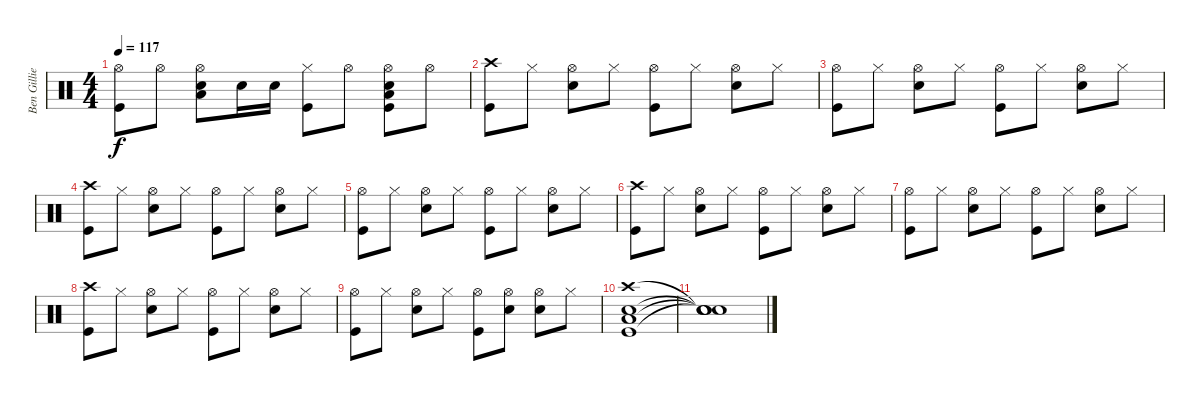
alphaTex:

\track ("Ben Gillies" "Ben Gillie") {instrument percussion}
\staff {score}
\articulation defaults
\ts (4 4)
\tempo 117
\clef neutral
\ks c
("Hi-Hat (open)" "Kick (hit)").8{dy f} "Hi-Hat (open)".8 ("Snare (hit) 2" "Hi-Hat (open)" "Low Tom (hit)").8 "Snare (hit) 2".16 "Snare (hit) 2".16 ("Hi-Hat (closed)" "Kick (hit)").8 "Hi-Hat (open)".8 ("Kick (hit)" "Snare (hit) 2" "Hi-Hat (open)" "Low Tom (hit)").8 "Hi-Hat (open)".8 |
("Crash high (hit)" "Kick (hit)").8 "Hi-Hat (closed)".8 ("Snare (hit) 2" "Hi-Hat (open)").8 "Hi-Hat (closed)".8 ("Hi-Hat (open)" "Kick (hit)").8 "Hi-Hat (closed)".8 ("Snare (hit) 2" "Hi-Hat (open)").8 "Hi-Hat (closed)".8 |
("Hi-Hat (open)" "Kick (hit)").8 "Hi-Hat (closed)".8 ("Snare (hit) 2" "Hi-Hat (open)").8 "Hi-Hat (closed)".8 ("Hi-Hat (open)" "Kick (hit)").8 "Hi-Hat (closed)".8 ("Snare (hit) 2" "Hi-Hat (open)").8 "Hi-Hat (closed)".8 |
("Crash high (hit)" "Kick (hit)").8 "Hi-Hat (closed)".8 ("Snare (hit) 2" "Hi-Hat (open)").8 "Hi-Hat (closed)".8 ("Hi-Hat (open)" "Kick (hit)").8 "Hi-Hat (closed)".8 ("Snare (hit) 2" "Hi-Hat (open)").8 "Hi-Hat (closed)".8 |
("Hi-Hat (open)" "Kick (hit)").8 "Hi-Hat (closed)".8 ("Snare (hit) 2" "Hi-Hat (open)").8 "Hi-Hat (closed)".8 ("Hi-Hat (open)" "Kick (hit)").8 "Hi-Hat (closed)".8 ("Snare (hit) 2" "Hi-Hat (open)").8 "Hi-Hat (closed)".8 |
("Crash high (hit)" "Kick (hit)").8 "Hi-Hat (closed)".8 ("Snare (hit) 2" "Hi-Hat (open)").8 "Hi-Hat (closed)".8 ("Hi-Hat (open)" "Kick (hit)").8 "Hi-Hat (closed)".8 ("Snare (hit) 2" "Hi-Hat (open)").8 "Hi-Hat (closed)".8 |
("Hi-Hat (open)" "Kick (hit)").8 "Hi-Hat (closed)".8 ("Snare (hit) 2" "Hi-Hat (open)").8 "Hi-Hat (closed)".8 ("Hi-Hat (open)" "Kick (hit)").8 "Hi-Hat (closed)".8 ("Snare (hit) 2" "Hi-Hat (open)").8 "Hi-Hat (closed)".8 |
("Crash high (hit)" "Kick (hit)").8 "Hi-Hat (closed)".8 ("Snare (hit) 2" "Hi-Hat (open)").8 "Hi-Hat (closed)".8 ("Hi-Hat (open)" "Kick (hit)").8 "Hi-Hat (closed)".8 ("Snare (hit) 2" "Hi-Hat (open)").8 "Hi-Hat (closed)".8 |
("Hi-Hat (open)" "Kick (hit)").8 "Hi-Hat (closed)".8 ("Snare (hit) 2" "Hi-Hat (open)").8 "Hi-Hat (closed)".8 ("Hi-Hat (open)" "Kick (hit)").8 ("Snare (hit) 2" "Hi-Hat (open)").8 ("Snare (hit) 2" "Hi-Hat (open)").8 "Hi-Hat (closed)".8 |
("Low Tom (hit)" "Snare (hit) 2" "Crash high (hit)" "Kick (hit)").1 |
("Snare (hit)"{t} "Snare (hit)"{t} "Snare (hit)"{t} "Snare (hit)"{t}).1
